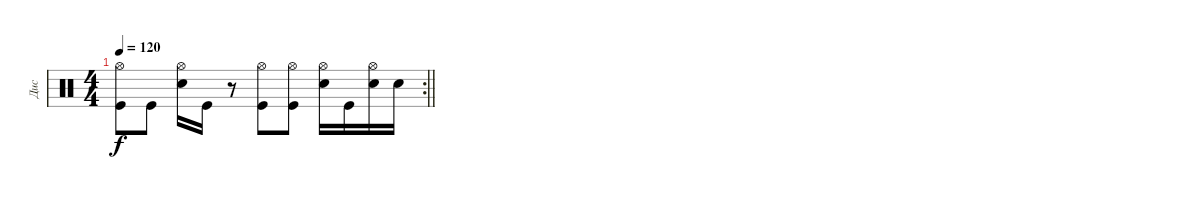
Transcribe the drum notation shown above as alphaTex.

\track ("Дис  " "Дис  ") {instrument percussion}
\staff {score}
\articulation defaults
\rc 2
\ts (4 4)
\tempo 120
\clef neutral
\barLineRight lightlight
\ks c
("Hi-Hat (open)" "Kick (hit)").8{dy f} "Kick (hit)".8 ("Hi-Hat (open)" "Electric Snare (hit)").16 "Kick (hit)".16 r.8 ("Hi-Hat (open)" "Kick (hit)").8 ("Hi-Hat (open)" "Kick (hit)").8 ("Hi-Hat (open)" "Electric Snare (hit)").16 "Kick (hit)".16 ("Hi-Hat (open)" "Electric Snare (hit)").16 "Electric Snare (hit)".16
